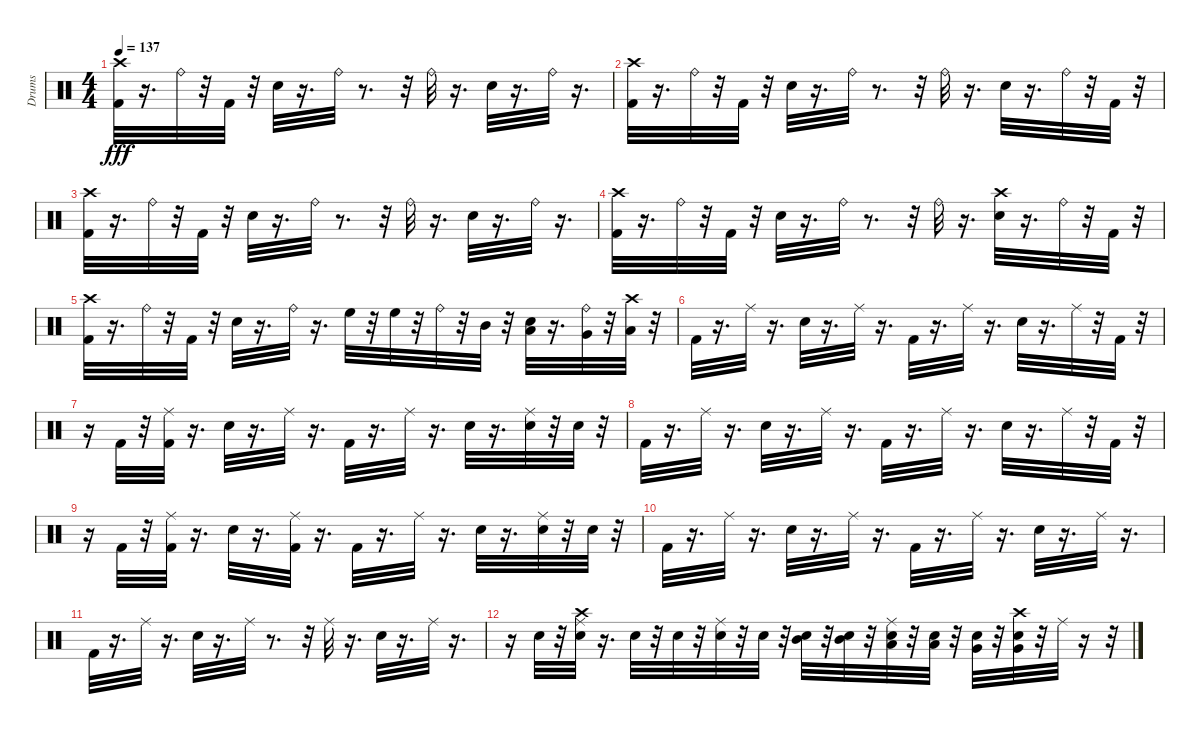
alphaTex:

\track ("Drums" "Drums") {instrument percussion}
\staff {score}
\articulation defaults
\ts (4 4)
\tempo 137
\clef neutral
\ks c
("Crash high (hit)" "Kick (hit) 2").32{dy fff} r.16{d} "Ride (bell)".32 r.32 "Kick (hit) 2".32 r.32 "Snare (hit) 2".32 r.16{d} "Ride (bell)".32 r.8{d} r.32 "Ride (bell)".32 r.16{d} "Snare (hit) 2".32 r.16{d} "Ride (bell)".32 r.16{d} |
("Crash high (hit)" "Kick (hit) 2").32 r.16{d} "Ride (bell)".32 r.32 "Kick (hit) 2".32 r.32 "Snare (hit) 2".32 r.16{d} "Ride (bell)".32 r.8{d} r.32 "Ride (bell)".32 r.16{d} "Snare (hit) 2".32 r.16{d} "Ride (bell)".32 r.32 "Kick (hit) 2".32 r.32 |
("Crash high (hit)" "Kick (hit) 2").32 r.16{d} "Ride (bell)".32 r.32 "Kick (hit) 2".32 r.32 "Snare (hit) 2".32 r.16{d} "Ride (bell)".32 r.8{d} r.32 "Ride (bell)".32 r.16{d} "Snare (hit) 2".32 r.16{d} "Ride (bell)".32 r.16{d} |
("Crash high (hit)" "Kick (hit) 2").32 r.16{d} "Ride (bell)".32 r.32 "Kick (hit) 2".32 r.32 "Snare (hit) 2".32 r.16{d} "Ride (bell)".32 r.8{d} r.32 "Ride (bell)".32 r.16{d} ("Crash high (hit)" "Snare (hit) 2").32 r.16{d} "Ride (bell)".32 r.32 "Kick (hit) 2".32 r.32 |
("Crash high (hit)" "Kick (hit) 2").32 r.16{d} "Ride (bell)".32 r.32 "Kick (hit) 2".32 r.32 "Snare (hit) 2".32 r.16{d} "Ride (bell)".32 r.16{d} "High Floor Tom (hit)".32 r.32 "High Floor Tom (hit)".32 r.32 "Ride (bell)".32 r.32 "Mid Tom (hit)".32 r.32 ("Low Tom (hit)" "Snare (hit) 2").32 r.16{d} ("Very Low Tom (hit)" "Ride (bell)").32 r.32 ("Crash high (hit)" "Low Floor Tom (hit)").32 r.32 |
"Kick (hit) 2".32 r.16{d} "Ride (middle)".32 r.16{d} "Snare (hit) 2".32 r.16{d} "Ride (middle)".32 r.16{d} "Kick (hit) 2".32 r.16{d} "Ride (middle)".32 r.16{d} "Snare (hit) 2".32 r.16{d} "Ride (middle)".32 r.32 "Kick (hit) 2".32 r.32 |
r.16 "Kick (hit) 2".32 r.32 ("Kick (hit) 2" "Ride (middle)").32 r.16{d} "Snare (hit) 2".32 r.16{d} "Ride (middle)".32 r.16{d} "Kick (hit) 2".32 r.16{d} "Ride (middle)".32 r.16{d} "Snare (hit) 2".32 r.16{d} ("Snare (hit) 2" "Ride (middle)").32 r.32 "Snare (hit) 2".32 r.32 |
"Kick (hit) 2".32 r.16{d} "Ride (middle)".32 r.16{d} "Snare (hit) 2".32 r.16{d} "Ride (middle)".32 r.16{d} "Kick (hit) 2".32 r.16{d} "Ride (middle)".32 r.16{d} "Snare (hit) 2".32 r.16{d} "Ride (middle)".32 r.32 "Kick (hit) 2".32 r.32 |
r.16 "Kick (hit) 2".32 r.32 ("Kick (hit) 2" "Ride (middle)").32 r.16{d} "Snare (hit) 2".32 r.16{d} ("Kick (hit) 2" "Ride (middle)").32 r.16{d} "Kick (hit) 2".32 r.16{d} "Ride (middle)".32 r.16{d} "Snare (hit) 2".32 r.16{d} ("Snare (hit) 2" "Ride (middle)").32 r.32 "Snare (hit) 2".32 r.32 |
"Kick (hit) 2".32 r.16{d} "Ride (middle)".32 r.16{d} "Snare (hit) 2".32 r.16{d} "Ride (middle)".32 r.16{d} "Kick (hit) 2".32 r.16{d} "Ride (middle)".32 r.16{d} "Snare (hit) 2".32 r.16{d} "Ride (middle)".32 r.16{d} |
"Kick (hit) 2".32 r.16{d} "Ride (middle)".32 r.16{d} "Snare (hit) 2".32 r.16{d} "Ride (middle)".32 r.8{d} r.32 "Ride (middle)".32 r.16{d} "Snare (hit) 2".32 r.16{d} "Ride (middle)".32 r.16{d} |
r.16 "Snare (hit) 2".32 r.32 ("Crash high (hit)" "Snare (hit) 2" "Ride (middle)").32 r.16{d} "Snare (hit) 2".32 r.32 "Snare (hit) 2".32 r.32 ("Snare (hit) 2" "Ride (middle)").32 r.32 "Snare (hit) 2".32 r.32 ("Snare (hit) 2" "Mid Tom (hit)").32 r.32 ("Mid Tom (hit)" "Snare (hit) 2").32 r.32 ("Low Tom (hit)" "Snare (hit) 2" "Ride (middle)").32 r.32 ("Low Tom (hit)" "Snare (hit) 2").32 r.32 ("Very Low Tom (hit)" "Snare (hit) 2").32 r.32 ("Very Low Tom (hit)" "Crash high (hit)" "Snare (hit) 2").32 r.32 "Ride (middle)".32 r.16 r.32
